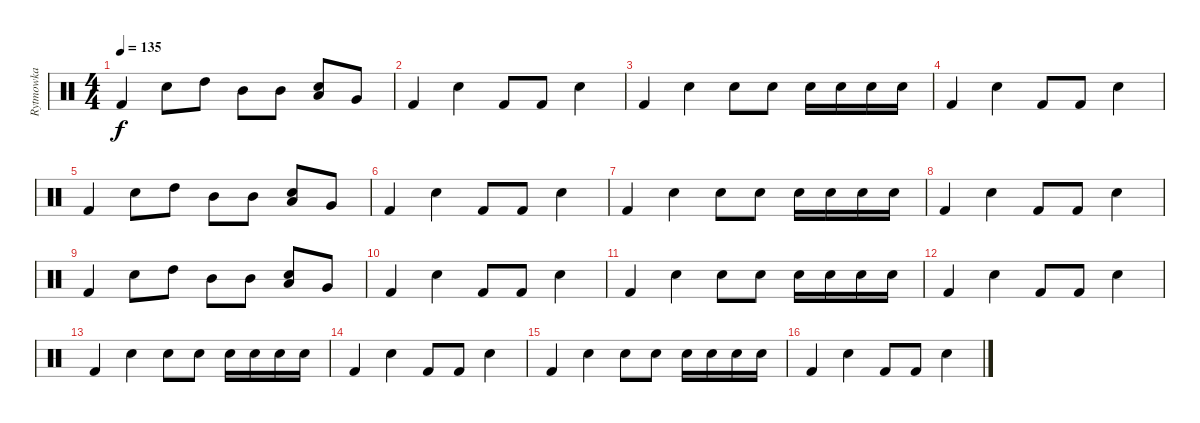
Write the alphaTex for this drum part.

\track ("Rytmowka" "Rytmowka") {instrument percussion}
\staff {score}
\articulation defaults
\ts (4 4)
\tempo 135
\clef neutral
\ks c "Kick (hit) 2".4{dy f} "Snare (hit) 2".8 "High Tom (hit)".8 "Mid Tom (hit)".8 "Mid Tom (hit)".8
("Snare (hit) 2" "Low Tom (hit)").8 "Very Low Tom (hit)".8 |
"Kick (hit) 2".4 "Snare (hit) 2".4 "Kick (hit) 2".8 "Kick (hit) 2".8 "Snare (hit) 2".4 |
"Kick (hit) 2".4 "Snare (hit) 2".4 "Snare (hit) 2".8 "Snare (hit) 2".8 "Snare (hit) 2".16 "Snare (hit) 2".16 "Snare (hit) 2".16 "Snare (hit) 2".16 |
"Kick (hit) 2".4 "Snare (hit) 2".4 "Kick (hit) 2".8 "Kick (hit) 2".8 "Snare (hit) 2".4 |
"Kick (hit) 2".4 "Snare (hit) 2".8 "High Tom (hit)".8 "Mid Tom (hit)".8 "Mid Tom (hit)".8 ("Snare (hit) 2" "Low Tom (hit)").8 "Very Low Tom (hit)".8 |
"Kick (hit) 2".4 "Snare (hit) 2".4 "Kick (hit) 2".8 "Kick (hit) 2".8 "Snare (hit) 2".4 |
"Kick (hit) 2".4 "Snare (hit) 2".4 "Snare (hit) 2".8 "Snare (hit) 2".8 "Snare (hit) 2".16 "Snare (hit) 2".16 "Snare (hit) 2".16 "Snare (hit) 2".16 |
"Kick (hit) 2".4 "Snare (hit) 2".4 "Kick (hit) 2".8 "Kick (hit) 2".8 "Snare (hit) 2".4 |
"Kick (hit) 2".4 "Snare (hit) 2".8 "High Tom (hit)".8 "Mid Tom (hit)".8 "Mid Tom (hit)".8 ("Snare (hit) 2" "Low Tom (hit)").8 "Very Low Tom (hit)".8 |
"Kick (hit) 2".4 "Snare (hit) 2".4 "Kick (hit) 2".8 "Kick (hit) 2".8 "Snare (hit) 2".4 |
"Kick (hit) 2".4 "Snare (hit) 2".4 "Snare (hit) 2".8 "Snare (hit) 2".8 "Snare (hit) 2".16 "Snare (hit) 2".16 "Snare (hit) 2".16 "Snare (hit) 2".16 |
"Kick (hit) 2".4 "Snare (hit) 2".4 "Kick (hit) 2".8 "Kick (hit) 2".8 "Snare (hit) 2".4 |
"Kick (hit) 2".4 "Snare (hit) 2".4 "Snare (hit) 2".8 "Snare (hit) 2".8 "Snare (hit) 2".16 "Snare (hit) 2".16 "Snare (hit) 2".16 "Snare (hit) 2".16 |
"Kick (hit) 2".4 "Snare (hit) 2".4 "Kick (hit) 2".8 "Kick (hit) 2".8 "Snare (hit) 2".4 |
"Kick (hit) 2".4 "Snare (hit) 2".4 "Snare (hit) 2".8 "Snare (hit) 2".8 "Snare (hit) 2".16 "Snare (hit) 2".16 "Snare (hit) 2".16 "Snare (hit) 2".16 |
"Kick (hit) 2".4 "Snare (hit) 2".4 "Kick (hit) 2".8 "Kick (hit) 2".8 "Snare (hit) 2".4
